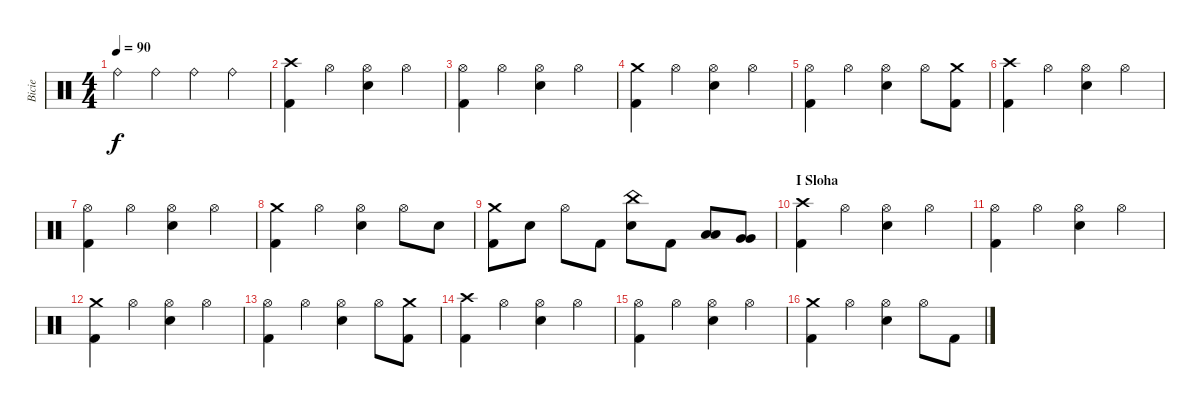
\track ("Bicie" "Bicie") {instrument percussion}
\staff {score}
\articulation defaults
\ts (4 4)
\tempo 90
\clef neutral
\ks c "Ride (bell)".4{dy f} "Ride (bell)".4 "Ride (bell)".4 "Ride (bell)".4
|
("Crash high (hit)" "Kick (hit) 2").4 "Hi-Hat (open)".4 ("Hi-Hat (open)" "Electric Snare (hit)").4 "Hi-Hat (open)".4 |
("Hi-Hat (open)" "Kick (hit) 2").4 "Hi-Hat (open)".4 ("Hi-Hat (open)" "Electric Snare (hit)").4 "Hi-Hat (open)".4 |
("Crash medium (hit)" "Kick (hit) 2").4 "Hi-Hat (open)".4 ("Hi-Hat (open)" "Electric Snare (hit)").4 "Hi-Hat (open)".4 |
("Hi-Hat (open)" "Kick (hit) 2").4 "Hi-Hat (open)".4 ("Hi-Hat (open)" "Electric Snare (hit)").4 "Hi-Hat (open)".8 ("Crash medium (hit)" "Kick (hit) 2").8 |
("Crash high (hit)" "Kick (hit) 2").4 "Hi-Hat (open)".4 ("Hi-Hat (open)" "Electric Snare (hit)").4 "Hi-Hat (open)".4 |
("Hi-Hat (open)" "Kick (hit) 2").4 "Hi-Hat (open)".4 ("Hi-Hat (open)" "Electric Snare (hit)").4 "Hi-Hat (open)".4 |
("Crash medium (hit)" "Kick (hit) 2").4 "Hi-Hat (open)".4 ("Hi-Hat (open)" "Electric Snare (hit)").4 "Hi-Hat (open)".8 "Electric Snare (hit)".8 |
("Crash medium (hit)" "Kick (hit) 2").8 "Electric Snare (hit)".8 "Hi-Hat (open)".8 "Kick (hit) 2".8 ("China (hit)" "Electric Snare (hit)").8 "Kick (hit) 2".8 ("Low Tom (hit)" "Low Tom (hit)").8 ("Very Low Tom (hit)" "Very Low Tom (hit)").8 |
\section ("" "I Sloha")
("Crash high (hit)" "Kick (hit) 2").4 "Hi-Hat (open)".4 ("Hi-Hat (open)" "Electric Snare (hit)").4 "Hi-Hat (open)".4 |
("Hi-Hat (open)" "Kick (hit) 2").4 "Hi-Hat (open)".4 ("Hi-Hat (open)" "Electric Snare (hit)").4 "Hi-Hat (open)".4 |
("Crash medium (hit)" "Kick (hit) 2").4 "Hi-Hat (open)".4 ("Hi-Hat (open)" "Electric Snare (hit)").4 "Hi-Hat (open)".4 |
("Hi-Hat (open)" "Kick (hit) 2").4 "Hi-Hat (open)".4 ("Hi-Hat (open)" "Electric Snare (hit)").4 "Hi-Hat (open)".8 ("Crash medium (hit)" "Kick (hit) 2").8 |
("Crash high (hit)" "Kick (hit) 2").4 "Hi-Hat (open)".4 ("Hi-Hat (open)" "Electric Snare (hit)").4 "Hi-Hat (open)".4 |
("Hi-Hat (open)" "Kick (hit) 2").4 "Hi-Hat (open)".4 ("Hi-Hat (open)" "Electric Snare (hit)").4 "Hi-Hat (open)".4 |
("Crash medium (hit)" "Kick (hit) 2").4 "Hi-Hat (open)".4 ("Hi-Hat (open)" "Electric Snare (hit)").4 "Hi-Hat (open)".8 "Kick (hit) 2".8
